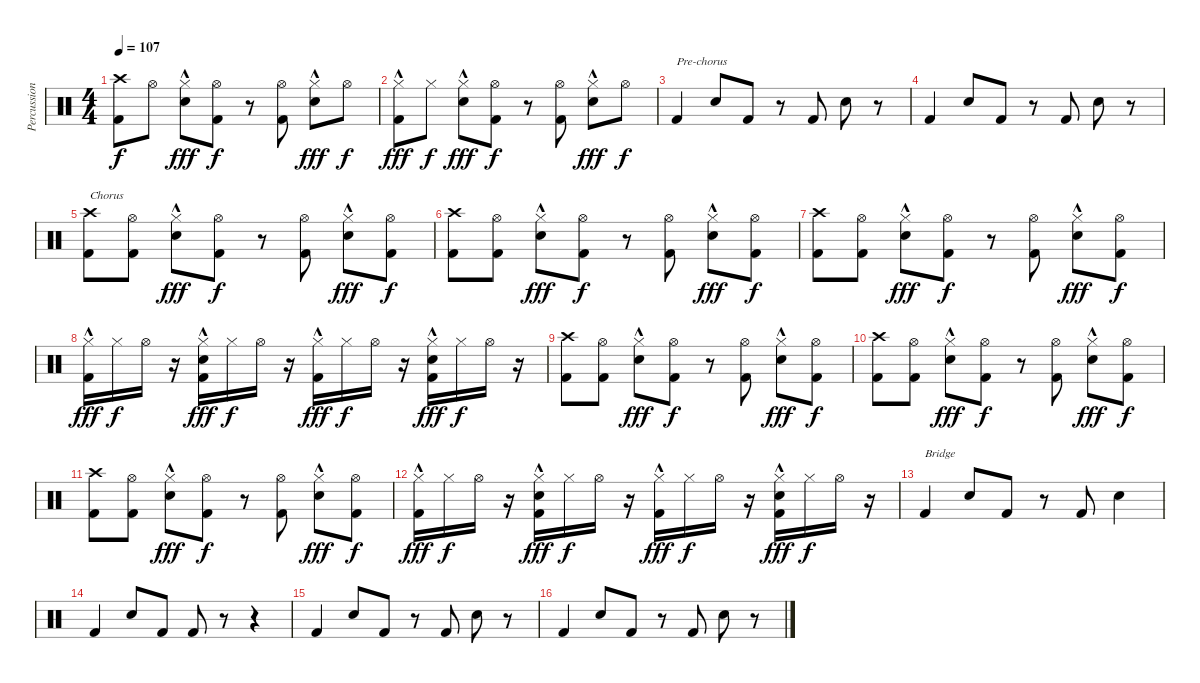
\track ("Percussion" "Percussion") {instrument percussion}
\staff {score}
\articulation defaults
\ts (4 4)
\tempo 107
\clef neutral
\ks c
("Crash high (hit)" "Kick (hit) 2").8{dy f} "Hi-Hat (open)".8 ("Hi-Hat (closed)"{hac} "Snare (hit) 2").8{dy fff} ("Hi-Hat (open)" "Kick (hit) 2").8{dy f} r.8 ("Hi-Hat (open)" "Kick (hit) 2").8 ("Hi-Hat (closed)"{hac} "Snare (hit) 2").8{dy fff} "Hi-Hat (open)".8{dy f} |
("Hi-Hat (closed)"{hac} "Kick (hit) 2").8{dy fff} "Hi-Hat (closed)".8{dy f} ("Hi-Hat (closed)"{hac} "Snare (hit) 2").8{dy fff} ("Hi-Hat (open)" "Kick (hit) 2").8{dy f} r.8 ("Hi-Hat (open)" "Kick (hit) 2").8 ("Hi-Hat (closed)"{hac} "Snare (hit) 2").8{dy fff} "Hi-Hat (open)".8{dy f} |
"Kick (hit) 2".4{txt "Pre-chorus"} "Snare (hit) 2".8 "Kick (hit) 2".8 r.8 "Kick (hit) 2".8 "Snare (hit) 2".8 r.8 |
"Kick (hit) 2".4 "Snare (hit) 2".8 "Kick (hit) 2".8 r.8 "Kick (hit) 2".8 "Snare (hit) 2".8 r.8 |
("Crash high (hit)" "Kick (hit) 2").8{txt "Chorus"} ("Hi-Hat (open)" "Kick (hit) 2").8 ("Hi-Hat (closed)"{hac} "Snare (hit) 2").8{dy fff} ("Hi-Hat (open)" "Kick (hit) 2").8{dy f} r.8 ("Hi-Hat (open)" "Kick (hit) 2").8 ("Hi-Hat (closed)"{hac} "Snare (hit) 2").8{dy fff} ("Hi-Hat (open)" "Kick (hit) 2").8{dy f} |
("Crash high (hit)" "Kick (hit) 2").8 ("Hi-Hat (open)" "Kick (hit) 2").8 ("Hi-Hat (closed)"{hac} "Snare (hit) 2").8{dy fff} ("Hi-Hat (open)" "Kick (hit) 2").8{dy f} r.8 ("Hi-Hat (open)" "Kick (hit) 2").8 ("Hi-Hat (closed)"{hac} "Snare (hit) 2").8{dy fff} ("Hi-Hat (open)" "Kick (hit) 2").8{dy f} |
("Crash high (hit)" "Kick (hit) 2").8 ("Hi-Hat (open)" "Kick (hit) 2").8 ("Hi-Hat (closed)"{hac} "Snare (hit) 2").8{dy fff} ("Hi-Hat (open)" "Kick (hit) 2").8{dy f} r.8 ("Hi-Hat (open)" "Kick (hit) 2").8 ("Hi-Hat (closed)"{hac} "Snare (hit) 2").8{dy fff} ("Hi-Hat (open)" "Kick (hit) 2").8{dy f} |
("Hi-Hat (closed)"{hac} "Kick (hit) 2").16{dy fff} "Hi-Hat (closed)".16{dy f} "Hi-Hat (open)".16 r.16 ("Hi-Hat (closed)"{hac} "Snare (hit) 2" "Kick (hit) 2").16{dy fff} "Hi-Hat (closed)".16{dy f} "Hi-Hat (open)".16 r.16 ("Hi-Hat (closed)"{hac} "Kick (hit) 2").16{dy fff} "Hi-Hat (closed)".16{dy f} "Hi-Hat (open)".16 r.16 ("Hi-Hat (closed)"{hac} "Snare (hit) 2" "Kick (hit) 2").16{dy fff} "Hi-Hat (closed)".16{dy f} "Hi-Hat (open)".16 r.16 |
("Crash high (hit)" "Kick (hit) 2").8 ("Hi-Hat (open)" "Kick (hit) 2").8 ("Hi-Hat (closed)"{hac} "Snare (hit) 2").8{dy fff} ("Hi-Hat (open)" "Kick (hit) 2").8{dy f} r.8 ("Hi-Hat (open)" "Kick (hit) 2").8 ("Hi-Hat (closed)"{hac} "Snare (hit) 2").8{dy fff} ("Hi-Hat (open)" "Kick (hit) 2").8{dy f} |
("Crash high (hit)" "Kick (hit) 2").8 ("Hi-Hat (open)" "Kick (hit) 2").8 ("Hi-Hat (closed)"{hac} "Snare (hit) 2").8{dy fff} ("Hi-Hat (open)" "Kick (hit) 2").8{dy f} r.8 ("Hi-Hat (open)" "Kick (hit) 2").8 ("Hi-Hat (closed)"{hac} "Snare (hit) 2").8{dy fff} ("Hi-Hat (open)" "Kick (hit) 2").8{dy f} |
("Crash high (hit)" "Kick (hit) 2").8 ("Hi-Hat (open)" "Kick (hit) 2").8 ("Hi-Hat (closed)"{hac} "Snare (hit) 2").8{dy fff} ("Hi-Hat (open)" "Kick (hit) 2").8{dy f} r.8 ("Hi-Hat (open)" "Kick (hit) 2").8 ("Hi-Hat (closed)"{hac} "Snare (hit) 2").8{dy fff} ("Hi-Hat (open)" "Kick (hit) 2").8{dy f} |
("Hi-Hat (closed)"{hac} "Kick (hit) 2").16{dy fff} "Hi-Hat (closed)".16{dy f} "Hi-Hat (open)".16 r.16 ("Hi-Hat (closed)"{hac} "Snare (hit) 2" "Kick (hit) 2").16{dy fff} "Hi-Hat (closed)".16{dy f} "Hi-Hat (open)".16 r.16 ("Hi-Hat (closed)"{hac} "Kick (hit) 2").16{dy fff} "Hi-Hat (closed)".16{dy f} "Hi-Hat (open)".16 r.16 ("Hi-Hat (closed)"{hac} "Snare (hit) 2" "Kick (hit) 2").16{dy fff} "Hi-Hat (closed)".16{dy f} "Hi-Hat (open)".16 r.16 |
"Kick (hit) 2".4{txt "Bridge"} "Hand Clap (hit)".8 "Kick (hit) 2".8 r.8 "Kick (hit) 2".8 "Hand Clap (hit)".4 |
"Kick (hit) 2".4 "Hand Clap (hit)".8 "Kick (hit) 2".8 "Kick (hit) 2".8 r.8 r.4 |
"Kick (hit) 2".4 "Hand Clap (hit)".8 "Kick (hit) 2".8 r.8 "Kick (hit) 2".8 "Hand Clap (hit)".8 r.8 |
"Kick (hit) 2".4 "Hand Clap (hit)".8 "Kick (hit) 2".8 r.8 "Kick (hit) 2".8 "Hand Clap (hit)".8 r.8
